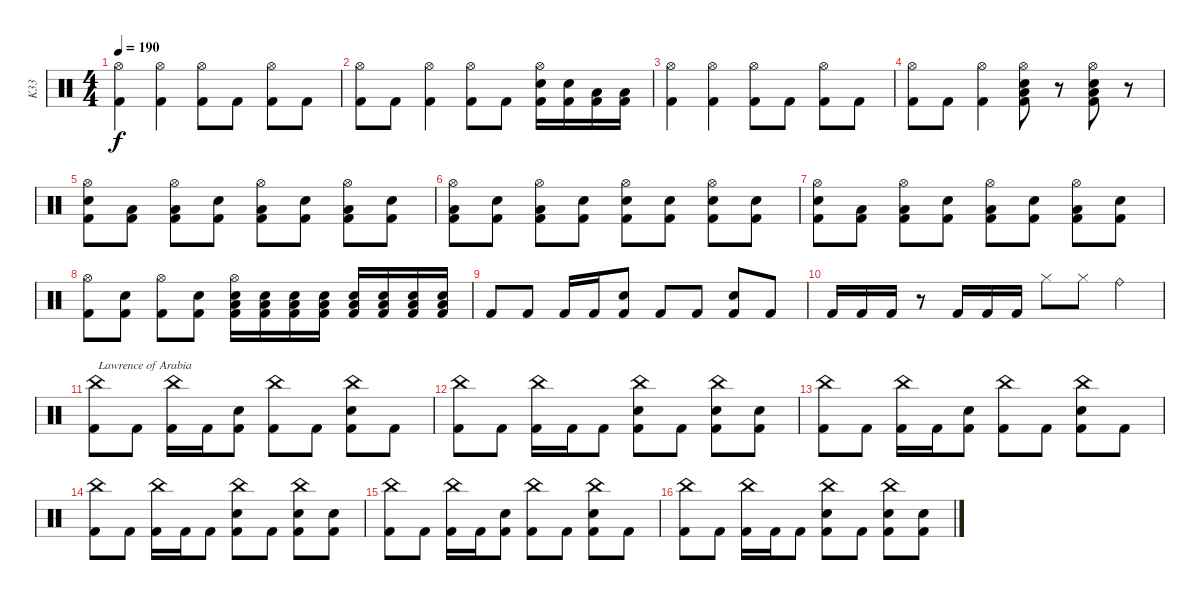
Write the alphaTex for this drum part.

\track ("K33" "K33") {instrument percussion}
\staff {score}
\articulation defaults
\ts (4 4)
\tempo 190
\clef neutral
\ks c
("Hi-Hat (open)" "Kick (hit) 2").4{dy f} ("Hi-Hat (open)" "Kick (hit) 2").4 ("Hi-Hat (open)" "Kick (hit) 2").8 "Kick (hit) 2".8 ("Hi-Hat (open)" "Kick (hit) 2").8 "Kick (hit) 2".8 |
("Hi-Hat (open)" "Kick (hit) 2").8 "Kick (hit) 2".8 ("Hi-Hat (open)" "Kick (hit) 2").4 ("Hi-Hat (open)" "Kick (hit) 2").8 "Kick (hit) 2".8 ("Hi-Hat (open)" "Electric Snare (hit)" "Kick (hit) 2").16 ("Electric Snare (hit)" "Kick (hit) 2").16 ("Low Floor Tom (hit)" "Kick (hit) 2").16 ("Low Floor Tom (hit)" "Kick (hit) 2").16 |
("Hi-Hat (open)" "Kick (hit) 2").4 ("Hi-Hat (open)" "Kick (hit) 2").4 ("Hi-Hat (open)" "Kick (hit) 2").8 "Kick (hit) 2".8 ("Hi-Hat (open)" "Kick (hit) 2").8 "Kick (hit) 2".8 |
("Hi-Hat (open)" "Kick (hit) 2").8 "Kick (hit) 2".8 ("Hi-Hat (open)" "Kick (hit) 2").4 ("Hi-Hat (open)" "Low Floor Tom (hit)" "Electric Snare (hit)" "Kick (hit) 2").8 r.8 ("Hi-Hat (open)" "Low Floor Tom (hit)" "Electric Snare (hit)" "Kick (hit) 2").8 r.8 |
("Hi-Hat (open)" "Electric Snare (hit)" "Kick (hit) 2").8 ("Low Floor Tom (hit)" "Kick (hit) 2").8 ("Hi-Hat (open)" "Low Floor Tom (hit)" "Kick (hit) 2").8 ("Electric Snare (hit)" "Kick (hit) 2").8 ("Hi-Hat (open)" "Low Floor Tom (hit)" "Kick (hit) 2").8 ("Electric Snare (hit)" "Kick (hit) 2").8 ("Hi-Hat (open)" "Low Floor Tom (hit)" "Kick (hit) 2").8 ("Electric Snare (hit)" "Kick (hit) 2").8 |
("Hi-Hat (open)" "Low Floor Tom (hit)" "Kick (hit) 2").8 ("Electric Snare (hit)" "Kick (hit) 2").8 ("Hi-Hat (open)" "Low Floor Tom (hit)" "Kick (hit) 2").8 ("Electric Snare (hit)" "Kick (hit) 2").8 ("Hi-Hat (open)" "Electric Snare (hit)" "Kick (hit) 2").8 ("Electric Snare (hit)" "Kick (hit) 2").8 ("Hi-Hat (open)" "Electric Snare (hit)" "Kick (hit) 2").8 ("Electric Snare (hit)" "Kick (hit) 2").8 |
("Hi-Hat (open)" "Electric Snare (hit)" "Kick (hit) 2").8 ("Low Floor Tom (hit)" "Kick (hit) 2").8 ("Hi-Hat (open)" "Low Floor Tom (hit)" "Kick (hit) 2").8 ("Electric Snare (hit)" "Kick (hit) 2").8 ("Hi-Hat (open)" "Low Floor Tom (hit)" "Kick (hit) 2").8 ("Electric Snare (hit)" "Kick (hit) 2").8 ("Hi-Hat (open)" "Low Floor Tom (hit)" "Kick (hit) 2").8 ("Electric Snare (hit)" "Kick (hit) 2").8 |
("Hi-Hat (open)" "Kick (hit) 2").8 ("Electric Snare (hit)" "Kick (hit) 2").8 ("Hi-Hat (open)" "Kick (hit) 2").8 ("Electric Snare (hit)" "Kick (hit) 2").8 ("Hi-Hat (open)" "Low Floor Tom (hit)" "Electric Snare (hit)" "Kick (hit) 2").16 ("Low Floor Tom (hit)" "Electric Snare (hit)" "Kick (hit) 2").16 ("Low Floor Tom (hit)" "Electric Snare (hit)" "Kick (hit) 2").16 ("Low Floor Tom (hit)" "Electric Snare (hit)" "Kick (hit) 2").16 ("Low Floor Tom (hit)" "Electric Snare (hit)" "Kick (hit) 2").16 ("Low Floor Tom (hit)" "Electric Snare (hit)" "Kick (hit) 2").16 ("Low Floor Tom (hit)" "Electric Snare (hit)" "Kick (hit) 2").16 ("Low Floor Tom (hit)" "Electric Snare (hit)" "Kick (hit) 2").16 |
"Kick (hit) 2".8 "Kick (hit) 2".8 "Kick (hit) 2".16 "Kick (hit) 2".16 ("Electric Snare (hit)" "Kick (hit) 2").8 "Kick (hit) 2".8 "Kick (hit) 2".8 ("Electric Snare (hit)" "Kick (hit) 2").8 "Kick (hit) 2".8 |
"Kick (hit) 2".16 "Kick (hit) 2".16 "Kick (hit) 2".16 r.8 "Kick (hit) 2".16 "Kick (hit) 2".16 "Kick (hit) 2".16 "Hi-Hat (closed)".8 "Hi-Hat (closed)".8 "Ride (bell)".4 |
("China (hit)" "Kick (hit) 2").8{txt "Lawrence of Arabia"} "Kick (hit) 2".8 ("China (hit)" "Kick (hit) 2").16 "Kick (hit) 2".16 ("Electric Snare (hit)" "Kick (hit) 2").8 ("China (hit)" "Kick (hit) 2").8 "Kick (hit) 2".8 ("China (hit)" "Electric Snare (hit)" "Kick (hit) 2").8 "Kick (hit) 2".8 |
("China (hit)" "Kick (hit) 2").8 "Kick (hit) 2".8 ("China (hit)" "Kick (hit) 2").16 "Kick (hit) 2".16 "Kick (hit) 2".8 ("China (hit)" "Electric Snare (hit)" "Kick (hit) 2").8 "Kick (hit) 2".8 ("China (hit)" "Electric Snare (hit)" "Kick (hit) 2").8 ("Electric Snare (hit)" "Kick (hit) 2").8 |
("China (hit)" "Kick (hit) 2").8 "Kick (hit) 2".8 ("China (hit)" "Kick (hit) 2").16 "Kick (hit) 2".16 ("Electric Snare (hit)" "Kick (hit) 2").8 ("China (hit)" "Kick (hit) 2").8 "Kick (hit) 2".8 ("China (hit)" "Electric Snare (hit)" "Kick (hit) 2").8 "Kick (hit) 2".8 |
("China (hit)" "Kick (hit) 2").8 "Kick (hit) 2".8 ("China (hit)" "Kick (hit) 2").16 "Kick (hit) 2".16 "Kick (hit) 2".8 ("China (hit)" "Electric Snare (hit)" "Kick (hit) 2").8 "Kick (hit) 2".8 ("China (hit)" "Electric Snare (hit)" "Kick (hit) 2").8 ("Electric Snare (hit)" "Kick (hit) 2").8 |
("China (hit)" "Kick (hit) 2").8 "Kick (hit) 2".8 ("China (hit)" "Kick (hit) 2").16 "Kick (hit) 2".16 ("Electric Snare (hit)" "Kick (hit) 2").8 ("China (hit)" "Kick (hit) 2").8 "Kick (hit) 2".8 ("China (hit)" "Electric Snare (hit)" "Kick (hit) 2").8 "Kick (hit) 2".8 |
("China (hit)" "Kick (hit) 2").8 "Kick (hit) 2".8 ("China (hit)" "Kick (hit) 2").16 "Kick (hit) 2".16 "Kick (hit) 2".8 ("China (hit)" "Electric Snare (hit)" "Kick (hit) 2").8 "Kick (hit) 2".8 ("China (hit)" "Electric Snare (hit)" "Kick (hit) 2").8 ("Electric Snare (hit)" "Kick (hit) 2").8
